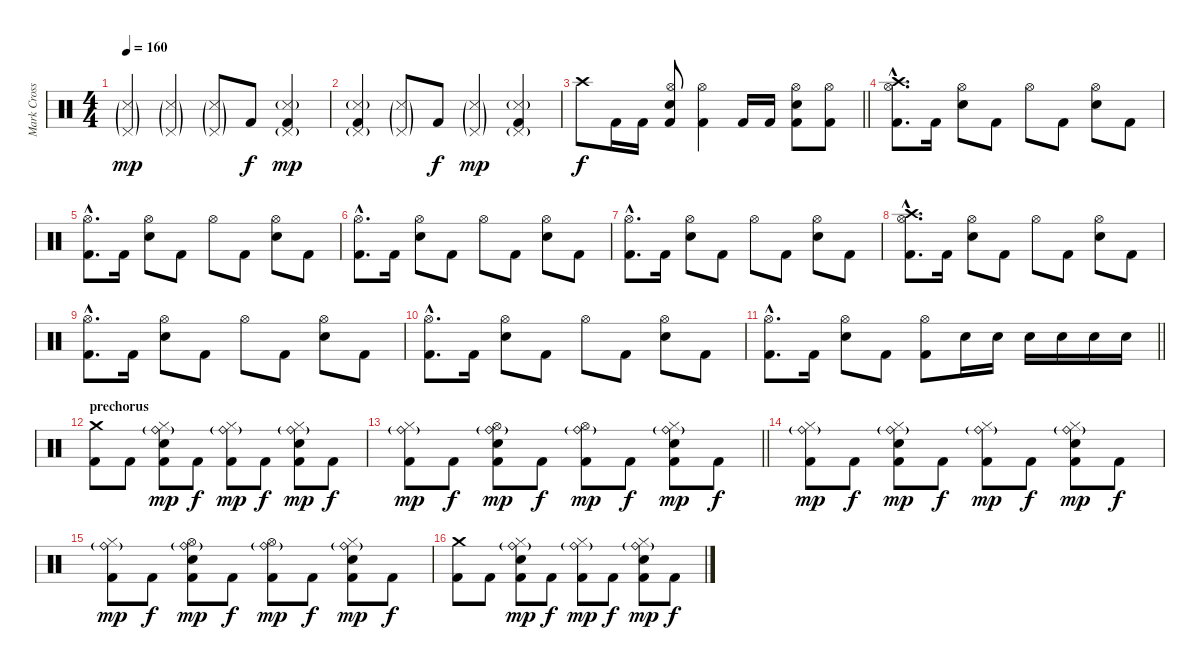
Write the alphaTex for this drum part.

\track ("Mark Cross" "Mark Cross") {instrument percussion}
\staff {score}
\articulation defaults
\ts (4 4)
\tempo 160
\clef neutral
\ks aminor
("Pedal Hi-Hat (hit)"{g} "Metronome (hit)"{g}).4{dy mp} ("Pedal Hi-Hat (hit)"{g} "Metronome (hit)"{g}).4 ("Pedal Hi-Hat (hit)"{g} "Metronome (hit)"{g}).8 "Kick (hit) 2".8{dy f} ("Pedal Hi-Hat (hit)"{g} "Metronome (hit)"{g} "Kick (hit) 2").4{dy mp} |
("Pedal Hi-Hat (hit)"{g} "Metronome (hit)"{g} "Kick (hit) 2").4 ("Pedal Hi-Hat (hit)"{g} "Metronome (hit)"{g}).8 "Kick (hit) 2".8{dy f} ("Pedal Hi-Hat (hit)"{g} "Metronome (hit)"{g}).4{dy mp} ("Pedal Hi-Hat (hit)"{g} "Metronome (hit)"{g} "Kick (hit) 2").4 |
\barLineRight lightlight "Crash high (hit)".8{dy f} "Kick (hit) 2".16 "Kick (hit) 2".16
("Hi-Hat (open)" "Electric Snare (hit)" "Kick (hit) 2").8 ("Hi-Hat (open)" "Kick (hit) 2").4 "Kick (hit) 2".16 "Kick (hit) 2".16 ("Hi-Hat (open)" "Electric Snare (hit)" "Kick (hit) 2").8 ("Hi-Hat (open)" "Kick (hit) 2").8 |
\section ("" "")
("Crash high (hit)"{hac} "Hi-Hat (open)"{hac} "Kick (hit) 2"{hac}).8{d} "Kick (hit) 2".16 ("Hi-Hat (open)" "Electric Snare (hit)").8 "Kick (hit) 2".8 "Hi-Hat (open)".8 "Kick (hit) 2".8 ("Hi-Hat (open)" "Electric Snare (hit)").8 "Kick (hit) 2".8 |
("Hi-Hat (open)"{hac} "Kick (hit) 2"{hac}).8{d} "Kick (hit) 2".16 ("Hi-Hat (open)" "Electric Snare (hit)").8 "Kick (hit) 2".8 "Hi-Hat (open)".8 "Kick (hit) 2".8 ("Hi-Hat (open)" "Electric Snare (hit)").8 "Kick (hit) 2".8 |
("Hi-Hat (open)"{hac} "Kick (hit) 2"{hac}).8{d} "Kick (hit) 2".16 ("Hi-Hat (open)" "Electric Snare (hit)").8 "Kick (hit) 2".8 "Hi-Hat (open)".8 "Kick (hit) 2".8 ("Hi-Hat (open)" "Electric Snare (hit)").8 "Kick (hit) 2".8 |
("Hi-Hat (open)"{hac} "Kick (hit) 2"{hac}).8{d} "Kick (hit) 2".16 ("Hi-Hat (open)" "Electric Snare (hit)").8 "Kick (hit) 2".8 "Hi-Hat (open)".8 "Kick (hit) 2".8 ("Hi-Hat (open)" "Electric Snare (hit)").8 "Kick (hit) 2".8 |
("Crash high (hit)"{hac} "Hi-Hat (open)"{hac} "Kick (hit) 2"{hac}).8{d} "Kick (hit) 2".16 ("Hi-Hat (open)" "Electric Snare (hit)").8 "Kick (hit) 2".8 "Hi-Hat (open)".8 "Kick (hit) 2".8 ("Hi-Hat (open)" "Electric Snare (hit)").8 "Kick (hit) 2".8 |
("Hi-Hat (open)"{hac} "Kick (hit) 2"{hac}).8{d} "Kick (hit) 2".16 ("Hi-Hat (open)" "Electric Snare (hit)").8 "Kick (hit) 2".8 "Hi-Hat (open)".8 "Kick (hit) 2".8 ("Hi-Hat (open)" "Electric Snare (hit)").8 "Kick (hit) 2".8 |
("Hi-Hat (open)"{hac} "Kick (hit) 2"{hac}).8{d} "Kick (hit) 2".16 ("Hi-Hat (open)" "Electric Snare (hit)").8 "Kick (hit) 2".8 "Hi-Hat (open)".8 "Kick (hit) 2".8 ("Hi-Hat (open)" "Electric Snare (hit)").8 "Kick (hit) 2".8 |
\barLineRight lightlight
("Hi-Hat (open)"{hac} "Kick (hit) 2"{hac}).8{d} "Kick (hit) 2".16 ("Hi-Hat (open)" "Electric Snare (hit)").8 "Kick (hit) 2".8 ("Hi-Hat (open)" "Kick (hit) 2").8 "Electric Snare (hit)".16 "Electric Snare (hit)".16 "Electric Snare (hit)".16 "Electric Snare (hit)".16 "Electric Snare (hit)".16 "Electric Snare (hit)".16 |
\section ("" "prechorus")
("Crash medium (hit)" "Kick (hit) 2").8 "Kick (hit) 2".8 ("Ride (bell)"{g} "Hi-Hat (closed)" "Electric Snare (hit)" "Kick (hit) 2").8{dy mp} "Kick (hit) 2".8{dy f} ("Ride (bell)"{g} "Hi-Hat (closed)" "Kick (hit) 2").8{dy mp} "Kick (hit) 2".8{dy f} ("Ride (bell)"{g} "Hi-Hat (closed)" "Electric Snare (hit)" "Kick (hit) 2").8{dy mp} "Kick (hit) 2".8{dy f} |
\barLineRight lightlight
("Ride (bell)"{g} "Hi-Hat (closed)" "Kick (hit) 2").8{dy mp} "Kick (hit) 2".8{dy f} ("Hi-Hat (open)" "Ride (bell)"{g} "Electric Snare (hit)" "Kick (hit) 2").8{dy mp} "Kick (hit) 2".8{dy f} ("Hi-Hat (open)" "Ride (bell)"{g} "Kick (hit) 2").8{dy mp} "Kick (hit) 2".8{dy f} ("Ride (bell)"{g} "Hi-Hat (closed)" "Electric Snare (hit)" "Kick (hit) 2").8{dy mp} "Kick (hit) 2".8{dy f} |
("Ride (bell)"{g} "Hi-Hat (closed)" "Kick (hit) 2").8{dy mp} "Kick (hit) 2".8{dy f} ("Ride (bell)"{g} "Hi-Hat (closed)" "Electric Snare (hit)" "Kick (hit) 2").8{dy mp} "Kick (hit) 2".8{dy f} ("Ride (bell)"{g} "Hi-Hat (closed)" "Kick (hit) 2").8{dy mp} "Kick (hit) 2".8{dy f} ("Ride (bell)"{g} "Hi-Hat (closed)" "Electric Snare (hit)" "Kick (hit) 2").8{dy mp} "Kick (hit) 2".8{dy f} |
("Ride (bell)"{g} "Hi-Hat (closed)" "Kick (hit) 2").8{dy mp} "Kick (hit) 2".8{dy f} ("Hi-Hat (open)" "Ride (bell)"{g} "Electric Snare (hit)" "Kick (hit) 2").8{dy mp} "Kick (hit) 2".8{dy f} ("Hi-Hat (open)" "Ride (bell)"{g} "Kick (hit) 2").8{dy mp} "Kick (hit) 2".8{dy f} ("Ride (bell)"{g} "Hi-Hat (closed)" "Electric Snare (hit)" "Kick (hit) 2").8{dy mp} "Kick (hit) 2".8{dy f} |
("Crash medium (hit)" "Kick (hit) 2").8 "Kick (hit) 2".8 ("Ride (bell)"{g} "Hi-Hat (closed)" "Electric Snare (hit)" "Kick (hit) 2").8{dy mp} "Kick (hit) 2".8{dy f} ("Ride (bell)"{g} "Hi-Hat (closed)" "Kick (hit) 2").8{dy mp} "Kick (hit) 2".8{dy f} ("Ride (bell)"{g} "Hi-Hat (closed)" "Electric Snare (hit)" "Kick (hit) 2").8{dy mp} "Kick (hit) 2".8{dy f}
